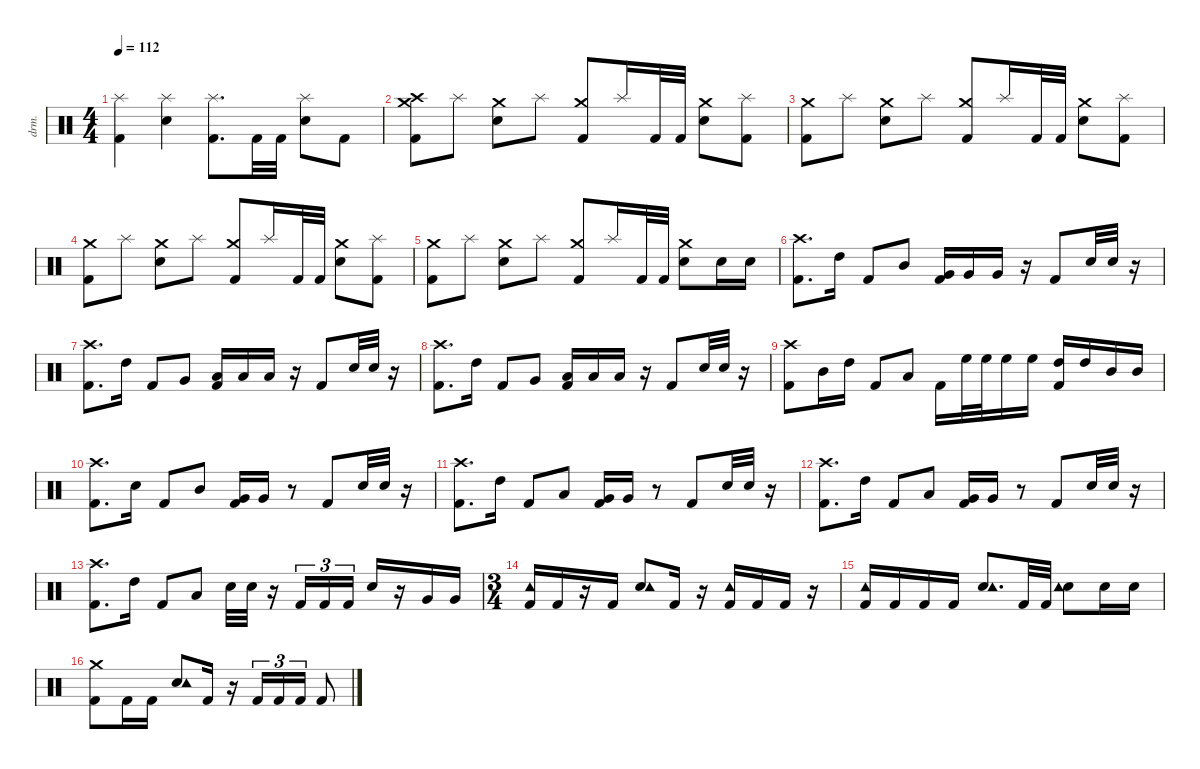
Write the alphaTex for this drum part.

\defaultSystemsLayout 4
\hideDynamics
\bracketExtendMode nobrackets
\otherSystemsTrackNameOrientation horizontal
\track ("Mike Portnoy" "drm.") {instrument percussion}
\staff {score}
\articulation defaults
\ts (4 4)
\tempo 112
\clef neutral
\ks c
("Kick (hit) 2" "Splash (hit)").4{dy f beam Down} ("Snare (hit) 2" "Splash (hit)").4{beam Down} ("Kick (hit) 2" "Splash (hit)").8{d beam Down} "Kick (hit) 2".32{beam Down} "Kick (hit) 2".32{beam Down} ("Snare (hit) 2" "Splash (hit)").8{beam Down} "Kick (hit) 2".8{beam Down} |
("Kick (hit) 2" "Crash high (hit)" "Crash medium (hit)").8{beam Down} "Splash (hit)".8{beam Down} ("Snare (hit) 2" "Crash medium (hit)").8{beam Down} "Splash (hit)".8{beam Down} ("Kick (hit) 2" "Crash medium (hit)").8{beam Up} "Splash (hit)".16{beam Up} "Kick (hit) 2".32{beam Up} "Kick (hit) 2".32{beam Up} ("Snare (hit) 2" "Crash medium (hit)").8{beam Down} ("Kick (hit) 2" "Splash (hit)").8{beam Down} |
("Kick (hit) 2" "Crash medium (hit)").8{beam Down} "Splash (hit)".8{beam Down} ("Snare (hit) 2" "Crash medium (hit)").8{beam Down} "Splash (hit)".8{beam Down} ("Kick (hit) 2" "Crash medium (hit)").8{beam Up} "Splash (hit)".16{beam Up} "Kick (hit) 2".32{beam Up} "Kick (hit) 2".32{beam Up} ("Snare (hit) 2" "Crash medium (hit)").8{beam Down} ("Kick (hit) 2" "Splash (hit)").8{beam Down} |
("Kick (hit) 2" "Crash medium (hit)").8{beam Down} "Splash (hit)".8{beam Down} ("Snare (hit) 2" "Crash medium (hit)").8{beam Down} "Splash (hit)".8{beam Down} ("Kick (hit) 2" "Crash medium (hit)").8{beam Up} "Splash (hit)".16{beam Up} "Kick (hit) 2".32{beam Up} "Kick (hit) 2".32{beam Up} ("Snare (hit) 2" "Crash medium (hit)").8{beam Down} ("Kick (hit) 2" "Splash (hit)").8{beam Down} |
("Kick (hit) 2" "Crash medium (hit)").8{beam Down} "Splash (hit)".8{beam Down} ("Snare (hit) 2" "Crash medium (hit)").8{beam Down} "Splash (hit)".8{beam Down} ("Kick (hit) 2" "Crash medium (hit)").8{beam Up} "Splash (hit)".16{beam Up} "Kick (hit) 2".32{beam Up} "Kick (hit) 2".32{beam Up} ("Snare (hit) 2" "Crash medium (hit)").8{beam Down} "Snare (hit) 2".16{beam Down} "Snare (hit) 2".16{beam Down} |
("Kick (hit) 2" "Crash high (hit)").8{d beam Down} "High Tom (hit)".16{beam Down} "Kick (hit) 2".8{beam Up} "Mid Tom (hit)".8{beam Up} ("Kick (hit) 2" "Very Low Tom (hit)").16{beam Up} "Very Low Tom (hit)".16{beam Up} "Very Low Tom (hit)".16{beam Up} r.16{beam Up} "Kick (hit) 2".8{beam Up} "Snare (hit) 2".32{beam Up} "Snare (hit) 2".32{beam Up} r.16{beam Up} |
("Kick (hit) 2" "Crash high (hit)").8{d beam Down} "High Tom (hit)".16{beam Down} "Kick (hit) 2".8{beam Up} "Very Low Tom (hit)".8{beam Up} ("Kick (hit) 2" "Low Floor Tom (hit)").16{beam Up} "Low Floor Tom (hit)".16{beam Up} "Low Floor Tom (hit)".16{beam Up} r.16{beam Up} "Kick (hit) 2".8{beam Up} "Snare (hit) 2".32{beam Up} "Snare (hit) 2".32{beam Up} r.16{beam Up} |
("Kick (hit) 2" "Crash high (hit)").8{d beam Down} "High Tom (hit)".16{beam Down} "Kick (hit) 2".8{beam Up} "Very Low Tom (hit)".8{beam Up} ("Kick (hit) 2" "Low Floor Tom (hit)").16{beam Up} "Low Floor Tom (hit)".16{beam Up} "Low Floor Tom (hit)".16{beam Up} r.16{beam Up} "Kick (hit) 2".8{beam Up} "Snare (hit) 2".32{beam Up} "Snare (hit) 2".32{beam Up} r.16{beam Up} |
("Kick (hit) 2" "Crash high (hit)").8{beam Down} "Mid Tom (hit)".16{beam Down} "High Tom (hit)".16{beam Down} "Kick (hit) 2".8{beam Up} "Low Tom (hit)".8{beam Up} "Kick (hit) 2".16{beam Down} "High Floor Tom (hit)".32{beam Down} "High Floor Tom (hit)".32{beam Down} "High Floor Tom (hit)".16{beam Down} "High Floor Tom (hit)".16{beam Down} ("Kick (hit) 2" "High Tom (hit)").16{beam Up} "High Tom (hit)".16{beam Up} "Mid Tom (hit)".16{beam Up} "Mid Tom (hit)".16{beam Up} |
("Kick (hit) 2" "Crash high (hit)").8{d beam Down} "Snare (hit) 2".16{beam Down} "Kick (hit) 2".8{beam Up} "Mid Tom (hit)".8{beam Up} ("Kick (hit) 2" "Very Low Tom (hit)").16{beam Up} "Very Low Tom (hit)".16{beam Up} r.8{beam Up} "Kick (hit) 2".8{beam Up} "Snare (hit) 2".32{beam Up} "Snare (hit) 2".32{beam Up} r.16{beam Up} |
("Kick (hit) 2" "Crash high (hit)").8{d beam Down} "High Tom (hit)".16{beam Down} "Kick (hit) 2".8{beam Up} "Low Tom (hit)".8{beam Up} ("Kick (hit) 2" "Very Low Tom (hit)").16{beam Up} "Very Low Tom (hit)".16{beam Up} r.8{beam Up} "Kick (hit) 2".8{beam Up} "Snare (hit) 2".32{beam Up} "Snare (hit) 2".32{beam Up} r.16{beam Up} |
("Kick (hit) 2" "Crash high (hit)").8{d beam Down} "High Tom (hit)".16{beam Down} "Kick (hit) 2".8{beam Up} "Low Tom (hit)".8{beam Up} ("Kick (hit) 2" "Very Low Tom (hit)").16{beam Up} "Very Low Tom (hit)".16{beam Up} r.8{beam Up} "Kick (hit) 2".8{beam Up} "Snare (hit) 2".32{beam Up} "Snare (hit) 2".32{beam Up} r.16{beam Up} |
("Kick (hit) 2" "Crash high (hit)").8{d beam Down} "High Tom (hit)".16{beam Down} "Kick (hit) 2".8{beam Up} "Low Tom (hit)".8{beam Up} "Snare (hit) 2".32{beam Down} "Snare (hit) 2".32{beam Down} r.16{beam Down} "Kick (hit) 2".16{tu (3 2) beam Up} "Kick (hit) 2".16{tu (3 2) beam Up} "Kick (hit) 2".16{tu (3 2) beam Up} "Snare (hit) 2".16{beam Up} r.16{beam Up} "Very Low Tom (hit)".16{beam Up} "Very Low Tom (hit)".16{beam Up} |
\ts (3 4)
\beaming (8 2 2 2)
("Kick (hit) 2" "Tambourine (hit)").16{beam Up} "Kick (hit) 2".16{beam Up} r.16{beam Up} "Kick (hit) 2".16{beam Up} ("Snare (hit) 2" "Tambourine (hit)").8{beam Up} "Kick (hit) 2".16{beam Up} r.16{beam Up} ("Kick (hit) 2" "Tambourine (hit)").16{beam Up} "Kick (hit) 2".16{beam Up} "Kick (hit) 2".16{beam Up} r.16{beam Up} |
("Kick (hit) 2" "Tambourine (hit)").16{beam Up} "Kick (hit) 2".16{beam Up} "Kick (hit) 2".16{beam Up} "Kick (hit) 2".16{beam Up} ("Snare (hit) 2" "Tambourine (hit)").8{d beam Up} "Kick (hit) 2".32{beam Up} "Kick (hit) 2".32{beam Up} ("Snare (hit) 2" "Tambourine (hit)").8{beam Down} "Snare (hit) 2".16{beam Down} "Snare (hit) 2".16{beam Down} |
("Kick (hit) 2" "Crash medium (hit)").8{beam Down} "Kick (hit) 2".16{beam Down} "Kick (hit) 2".16{beam Down} ("Snare (hit) 2" "Tambourine (hit)").8{beam Up} "Kick (hit) 2".16{beam Up} r.16{beam Up} "Kick (hit) 2".16{tu (3 2) beam Up} "Kick (hit) 2".16{tu (3 2) beam Up} "Kick (hit) 2".16{tu (3 2) beam Up} "Kick (hit) 2".8{beam Up}
